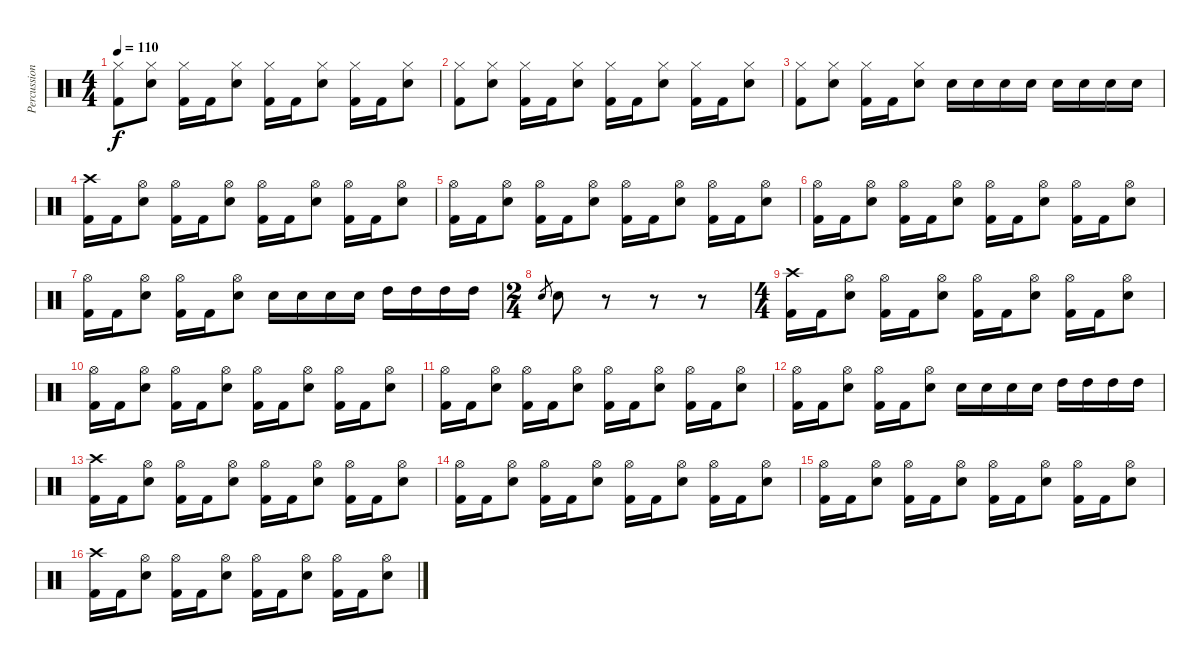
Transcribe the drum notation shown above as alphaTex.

\track ("Percussion" "Percussion") {instrument percussion}
\staff {score}
\articulation defaults
\ts (4 4)
\tempo 110
\clef neutral
\ks c
("Hi-Hat (closed)" "Kick (hit) 2").8{dy f} ("Hi-Hat (closed)" "Electric Snare (hit)").8 ("Hi-Hat (closed)" "Kick (hit) 2").16 "Kick (hit) 2".16 ("Hi-Hat (closed)" "Electric Snare (hit)").8 ("Hi-Hat (closed)" "Kick (hit) 2").16 "Kick (hit) 2".16 ("Hi-Hat (closed)" "Electric Snare (hit)").8 ("Hi-Hat (closed)" "Kick (hit) 2").16 "Kick (hit) 2".16 ("Hi-Hat (closed)" "Electric Snare (hit)").8 |
("Hi-Hat (closed)" "Kick (hit) 2").8 ("Hi-Hat (closed)" "Electric Snare (hit)").8 ("Hi-Hat (closed)" "Kick (hit) 2").16 "Kick (hit) 2".16 ("Hi-Hat (closed)" "Electric Snare (hit)").8 ("Hi-Hat (closed)" "Kick (hit) 2").16 "Kick (hit) 2".16 ("Hi-Hat (closed)" "Electric Snare (hit)").8 ("Hi-Hat (closed)" "Kick (hit) 2").16 "Kick (hit) 2".16 ("Hi-Hat (closed)" "Electric Snare (hit)").8 |
("Hi-Hat (closed)" "Kick (hit) 2").8 ("Hi-Hat (closed)" "Electric Snare (hit)").8 ("Hi-Hat (closed)" "Kick (hit) 2").16 "Kick (hit) 2".16 ("Hi-Hat (closed)" "Electric Snare (hit)").8 "Electric Snare (hit)".16 "Electric Snare (hit)".16 "Electric Snare (hit)".16 "Electric Snare (hit)".16 "Electric Snare (hit)".16 "Electric Snare (hit)".16 "Electric Snare (hit)".16 "Electric Snare (hit)".16 |
("Crash high (hit)" "Kick (hit) 2").16 "Kick (hit) 2".16 ("Hi-Hat (open)" "Electric Snare (hit)").8 ("Hi-Hat (open)" "Kick (hit) 2").16 "Kick (hit) 2".16 ("Hi-Hat (open)" "Electric Snare (hit)").8 ("Hi-Hat (open)" "Kick (hit) 2").16 "Kick (hit) 2".16 ("Hi-Hat (open)" "Electric Snare (hit)").8 ("Hi-Hat (open)" "Kick (hit) 2").16 "Kick (hit) 2".16 ("Hi-Hat (open)" "Electric Snare (hit)").8 |
("Hi-Hat (open)" "Kick (hit) 2").16 "Kick (hit) 2".16 ("Hi-Hat (open)" "Electric Snare (hit)").8 ("Hi-Hat (open)" "Kick (hit) 2").16 "Kick (hit) 2".16 ("Hi-Hat (open)" "Electric Snare (hit)").8 ("Hi-Hat (open)" "Kick (hit) 2").16 "Kick (hit) 2".16 ("Hi-Hat (open)" "Electric Snare (hit)").8 ("Hi-Hat (open)" "Kick (hit) 2").16 "Kick (hit) 2".16 ("Hi-Hat (open)" "Electric Snare (hit)").8 |
("Hi-Hat (open)" "Kick (hit) 2").16 "Kick (hit) 2".16 ("Hi-Hat (open)" "Electric Snare (hit)").8 ("Hi-Hat (open)" "Kick (hit) 2").16 "Kick (hit) 2".16 ("Hi-Hat (open)" "Electric Snare (hit)").8 ("Hi-Hat (open)" "Kick (hit) 2").16 "Kick (hit) 2".16 ("Hi-Hat (open)" "Electric Snare (hit)").8 ("Hi-Hat (open)" "Kick (hit) 2").16 "Kick (hit) 2".16 ("Hi-Hat (open)" "Electric Snare (hit)").8 |
("Hi-Hat (open)" "Kick (hit) 2").16 "Kick (hit) 2".16 ("Hi-Hat (open)" "Electric Snare (hit)").8 ("Hi-Hat (open)" "Kick (hit) 2").16 "Kick (hit) 2".16 ("Hi-Hat (open)" "Electric Snare (hit)").8 "Electric Snare (hit)".16 "Electric Snare (hit)".16 "Electric Snare (hit)".16 "Electric Snare (hit)".16 "High Tom (hit)".16 "High Tom (hit)".16 "High Tom (hit)".16 "High Tom (hit)".16 |
\ts (2 4)
"Electric Snare (hit)".8{gr} "Electric Snare (hit)".8 r.8 r.8 r.8 |
\ts (4 4)
("Crash high (hit)" "Kick (hit) 2").16 "Kick (hit) 2".16 ("Hi-Hat (open)" "Electric Snare (hit)").8 ("Hi-Hat (open)" "Kick (hit) 2").16 "Kick (hit) 2".16 ("Hi-Hat (open)" "Electric Snare (hit)").8 ("Hi-Hat (open)" "Kick (hit) 2").16 "Kick (hit) 2".16 ("Hi-Hat (open)" "Electric Snare (hit)").8 ("Hi-Hat (open)" "Kick (hit) 2").16 "Kick (hit) 2".16 ("Hi-Hat (open)" "Electric Snare (hit)").8 |
("Hi-Hat (open)" "Kick (hit) 2").16 "Kick (hit) 2".16 ("Hi-Hat (open)" "Electric Snare (hit)").8 ("Hi-Hat (open)" "Kick (hit) 2").16 "Kick (hit) 2".16 ("Hi-Hat (open)" "Electric Snare (hit)").8 ("Hi-Hat (open)" "Kick (hit) 2").16 "Kick (hit) 2".16 ("Hi-Hat (open)" "Electric Snare (hit)").8 ("Hi-Hat (open)" "Kick (hit) 2").16 "Kick (hit) 2".16 ("Hi-Hat (open)" "Electric Snare (hit)").8 |
("Hi-Hat (open)" "Kick (hit) 2").16 "Kick (hit) 2".16 ("Hi-Hat (open)" "Electric Snare (hit)").8 ("Hi-Hat (open)" "Kick (hit) 2").16 "Kick (hit) 2".16 ("Hi-Hat (open)" "Electric Snare (hit)").8 ("Hi-Hat (open)" "Kick (hit) 2").16 "Kick (hit) 2".16 ("Hi-Hat (open)" "Electric Snare (hit)").8 ("Hi-Hat (open)" "Kick (hit) 2").16 "Kick (hit) 2".16 ("Hi-Hat (open)" "Electric Snare (hit)").8 |
("Hi-Hat (open)" "Kick (hit) 2").16 "Kick (hit) 2".16 ("Hi-Hat (open)" "Electric Snare (hit)").8 ("Hi-Hat (open)" "Kick (hit) 2").16 "Kick (hit) 2".16 ("Hi-Hat (open)" "Electric Snare (hit)").8 "Electric Snare (hit)".16 "Electric Snare (hit)".16 "Electric Snare (hit)".16 "Electric Snare (hit)".16 "High Tom (hit)".16 "High Tom (hit)".16 "High Tom (hit)".16 "High Tom (hit)".16 |
("Crash high (hit)" "Kick (hit) 2").16 "Kick (hit) 2".16 ("Hi-Hat (open)" "Electric Snare (hit)").8 ("Hi-Hat (open)" "Kick (hit) 2").16 "Kick (hit) 2".16 ("Hi-Hat (open)" "Electric Snare (hit)").8 ("Hi-Hat (open)" "Kick (hit) 2").16 "Kick (hit) 2".16 ("Hi-Hat (open)" "Electric Snare (hit)").8 ("Hi-Hat (open)" "Kick (hit) 2").16 "Kick (hit) 2".16 ("Hi-Hat (open)" "Electric Snare (hit)").8 |
("Hi-Hat (open)" "Kick (hit) 2").16 "Kick (hit) 2".16 ("Hi-Hat (open)" "Electric Snare (hit)").8 ("Hi-Hat (open)" "Kick (hit) 2").16 "Kick (hit) 2".16 ("Hi-Hat (open)" "Electric Snare (hit)").8 ("Hi-Hat (open)" "Kick (hit) 2").16 "Kick (hit) 2".16 ("Hi-Hat (open)" "Electric Snare (hit)").8 ("Hi-Hat (open)" "Kick (hit) 2").16 "Kick (hit) 2".16 ("Hi-Hat (open)" "Electric Snare (hit)").8 |
("Hi-Hat (open)" "Kick (hit) 2").16 "Kick (hit) 2".16 ("Hi-Hat (open)" "Electric Snare (hit)").8 ("Hi-Hat (open)" "Kick (hit) 2").16 "Kick (hit) 2".16 ("Hi-Hat (open)" "Electric Snare (hit)").8 ("Hi-Hat (open)" "Kick (hit) 2").16 "Kick (hit) 2".16 ("Hi-Hat (open)" "Electric Snare (hit)").8 ("Hi-Hat (open)" "Kick (hit) 2").16 "Kick (hit) 2".16 ("Hi-Hat (open)" "Electric Snare (hit)").8 |
("Crash high (hit)" "Kick (hit) 2").16 "Kick (hit) 2".16 ("Hi-Hat (open)" "Electric Snare (hit)").8 ("Hi-Hat (open)" "Kick (hit) 2").16 "Kick (hit) 2".16 ("Hi-Hat (open)" "Electric Snare (hit)").8 ("Hi-Hat (open)" "Kick (hit) 2").16 "Kick (hit) 2".16 ("Hi-Hat (open)" "Electric Snare (hit)").8 ("Hi-Hat (open)" "Kick (hit) 2").16 "Kick (hit) 2".16 ("Hi-Hat (open)" "Electric Snare (hit)").8
